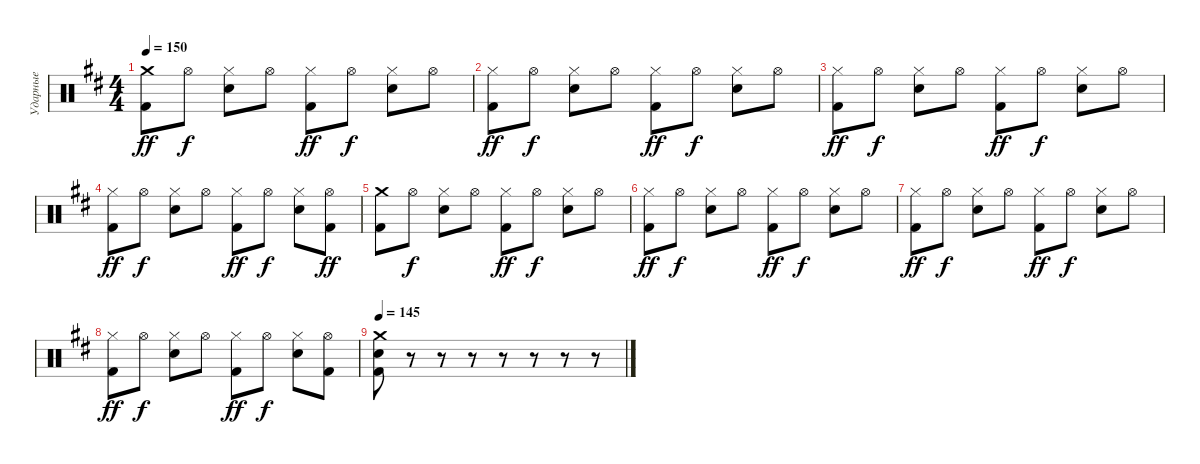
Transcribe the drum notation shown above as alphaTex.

\track ("Ударные" "Ударные") {instrument percussion}
\staff {score}
\articulation defaults
\ts (4 4)
\tempo 150
\clef neutral
\ks bminor
("Crash medium (hit)" "Kick (hit) 2").8{dy ff} "Hi-Hat (open)".8{dy f} ("Electric Snare (hit)" "Hi-Hat (closed)").8 "Hi-Hat (open)".8 ("Kick (hit) 2" "Hi-Hat (closed)").8{dy ff} "Hi-Hat (open)".8{dy f} ("Electric Snare (hit)" "Hi-Hat (closed)").8 "Hi-Hat (open)".8 |
("Kick (hit) 2" "Hi-Hat (closed)").8{dy ff} "Hi-Hat (open)".8{dy f} ("Electric Snare (hit)" "Hi-Hat (closed)").8 "Hi-Hat (open)".8 ("Kick (hit) 2" "Hi-Hat (closed)").8{dy ff} "Hi-Hat (open)".8{dy f} ("Electric Snare (hit)" "Hi-Hat (closed)").8 "Hi-Hat (open)".8 |
("Kick (hit) 2" "Hi-Hat (closed)").8{dy ff} "Hi-Hat (open)".8{dy f} ("Electric Snare (hit)" "Hi-Hat (closed)").8 "Hi-Hat (open)".8 ("Kick (hit) 2" "Hi-Hat (closed)").8{dy ff} "Hi-Hat (open)".8{dy f} ("Electric Snare (hit)" "Hi-Hat (closed)").8 "Hi-Hat (open)".8 |
("Kick (hit) 2" "Hi-Hat (closed)").8{dy ff} "Hi-Hat (open)".8{dy f} ("Electric Snare (hit)" "Hi-Hat (closed)").8 "Hi-Hat (open)".8 ("Kick (hit) 2" "Hi-Hat (closed)").8{dy ff} "Hi-Hat (open)".8{dy f} ("Electric Snare (hit)" "Hi-Hat (closed)").8 ("Kick (hit) 2" "Hi-Hat (open)").8{dy ff} |
("Crash medium (hit)" "Kick (hit) 2").8 "Hi-Hat (open)".8{dy f} ("Electric Snare (hit)" "Hi-Hat (closed)").8 "Hi-Hat (open)".8 ("Kick (hit) 2" "Hi-Hat (closed)").8{dy ff} "Hi-Hat (open)".8{dy f} ("Electric Snare (hit)" "Hi-Hat (closed)").8 "Hi-Hat (open)".8 |
("Kick (hit) 2" "Hi-Hat (closed)").8{dy ff} "Hi-Hat (open)".8{dy f} ("Electric Snare (hit)" "Hi-Hat (closed)").8 "Hi-Hat (open)".8 ("Kick (hit) 2" "Hi-Hat (closed)").8{dy ff} "Hi-Hat (open)".8{dy f} ("Electric Snare (hit)" "Hi-Hat (closed)").8 "Hi-Hat (open)".8 |
("Kick (hit) 2" "Hi-Hat (closed)").8{dy ff} "Hi-Hat (open)".8{dy f} ("Electric Snare (hit)" "Hi-Hat (closed)").8 "Hi-Hat (open)".8 ("Kick (hit) 2" "Hi-Hat (closed)").8{dy ff} "Hi-Hat (open)".8{dy f} ("Electric Snare (hit)" "Hi-Hat (closed)").8 "Hi-Hat (open)".8 |
("Kick (hit) 2" "Hi-Hat (closed)").8{dy ff} "Hi-Hat (open)".8{dy f} ("Electric Snare (hit)" "Hi-Hat (closed)").8 "Hi-Hat (open)".8 ("Kick (hit) 2" "Hi-Hat (closed)").8{dy ff} "Hi-Hat (open)".8{dy f} ("Electric Snare (hit)" "Hi-Hat (closed)").8 ("Kick (hit) 2" "Hi-Hat (open)").8 |
\tempo 145
("Kick (hit) 2" "Electric Snare (hit)" "Crash medium (hit)").8 r.8 r.8 r.8 r.8 r.8 r.8 r.8
